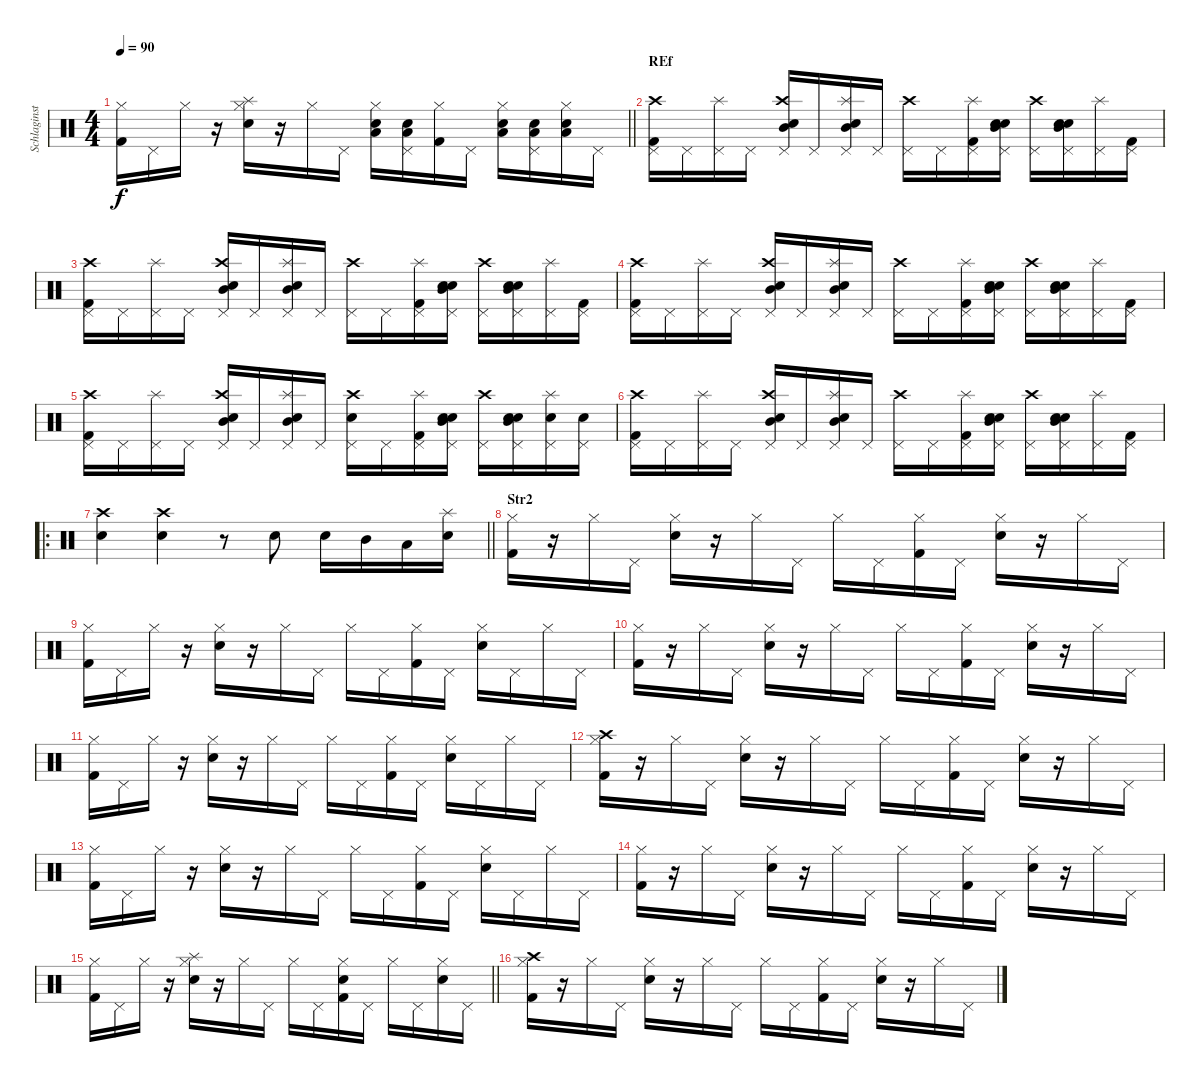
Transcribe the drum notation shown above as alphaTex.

\track ("Schlaginstrumente - Auswahl" "Schlaginst") {instrument percussion}
\staff {score}
\articulation defaults
\ts (4 4)
\tempo 90
\clef neutral
\barLineRight lightlight
\ks c
("Kick (hit) 2" "Hi-Hat (closed)").16{dy f} "Pedal Hi-Hat (hit)".16 "Hi-Hat (closed)".16 r.16 ("Snare (hit) 2" "Hi-Hat (closed)" "Splash (hit)").16 r.16 "Hi-Hat (closed)".16 "Pedal Hi-Hat (hit)".16 ("Hi-Hat (closed)" "Low Tom (hit)" "Snare (hit) 2").16 ("Pedal Hi-Hat (hit)" "Low Tom (hit)" "Snare (hit) 2").16 ("Kick (hit) 2" "Hi-Hat (closed)").16 "Pedal Hi-Hat (hit)".16 ("Snare (hit) 2" "Hi-Hat (closed)" "Low Tom (hit)").16 ("Pedal Hi-Hat (hit)" "Low Tom (hit)" "Snare (hit) 2").16 ("Hi-Hat (closed)" "Low Tom (hit)" "Snare (hit) 2").16 "Pedal Hi-Hat (hit)".16 |
\section ("" "REf")
("Crash high (hit)" "Kick (hit) 2" "Pedal Hi-Hat (hit)").16 "Pedal Hi-Hat (hit)".16 ("Splash (hit)" "Pedal Hi-Hat (hit)").16 "Pedal Hi-Hat (hit)".16 ("Mid Tom (hit)" "Snare (hit) 2" "Crash high (hit)" "Pedal Hi-Hat (hit)").16 "Pedal Hi-Hat (hit)".16 ("Snare (hit) 2" "Mid Tom (hit)" "Splash (hit)" "Pedal Hi-Hat (hit)").16 "Pedal Hi-Hat (hit)".16 ("Crash high (hit)" "Pedal Hi-Hat (hit)").16 "Pedal Hi-Hat (hit)".16 ("Splash (hit)" "Kick (hit) 2" "Pedal Hi-Hat (hit)").16 ("Mid Tom (hit)" "Snare (hit) 2" "Electric Snare (hit)" "Pedal Hi-Hat (hit)").16 ("Crash high (hit)" "Pedal Hi-Hat (hit)").16 ("Mid Tom (hit)" "Snare (hit) 2" "Electric Snare (hit)" "Pedal Hi-Hat (hit)").16 ("Splash (hit)" "Pedal Hi-Hat (hit)").16 ("Kick (hit) 2" "Pedal Hi-Hat (hit)").16 |
("Crash high (hit)" "Kick (hit) 2" "Pedal Hi-Hat (hit)").16 "Pedal Hi-Hat (hit)".16 ("Splash (hit)" "Pedal Hi-Hat (hit)").16 "Pedal Hi-Hat (hit)".16 ("Mid Tom (hit)" "Snare (hit) 2" "Crash high (hit)" "Pedal Hi-Hat (hit)").16 "Pedal Hi-Hat (hit)".16 ("Snare (hit) 2" "Mid Tom (hit)" "Splash (hit)" "Pedal Hi-Hat (hit)").16 "Pedal Hi-Hat (hit)".16 ("Crash high (hit)" "Pedal Hi-Hat (hit)").16 "Pedal Hi-Hat (hit)".16 ("Splash (hit)" "Kick (hit) 2" "Pedal Hi-Hat (hit)").16 ("Mid Tom (hit)" "Snare (hit) 2" "Electric Snare (hit)" "Pedal Hi-Hat (hit)").16 ("Crash high (hit)" "Pedal Hi-Hat (hit)").16 ("Mid Tom (hit)" "Snare (hit) 2" "Electric Snare (hit)" "Pedal Hi-Hat (hit)").16 ("Splash (hit)" "Pedal Hi-Hat (hit)").16 ("Kick (hit) 2" "Pedal Hi-Hat (hit)").16 |
("Crash high (hit)" "Kick (hit) 2" "Pedal Hi-Hat (hit)").16 "Pedal Hi-Hat (hit)".16 ("Splash (hit)" "Pedal Hi-Hat (hit)").16 "Pedal Hi-Hat (hit)".16 ("Mid Tom (hit)" "Snare (hit) 2" "Crash high (hit)" "Pedal Hi-Hat (hit)").16 "Pedal Hi-Hat (hit)".16 ("Snare (hit) 2" "Mid Tom (hit)" "Splash (hit)" "Pedal Hi-Hat (hit)").16 "Pedal Hi-Hat (hit)".16 ("Crash high (hit)" "Pedal Hi-Hat (hit)").16 "Pedal Hi-Hat (hit)".16 ("Splash (hit)" "Kick (hit) 2" "Pedal Hi-Hat (hit)").16 ("Mid Tom (hit)" "Snare (hit) 2" "Electric Snare (hit)" "Pedal Hi-Hat (hit)").16 ("Crash high (hit)" "Pedal Hi-Hat (hit)").16 ("Mid Tom (hit)" "Snare (hit) 2" "Electric Snare (hit)" "Pedal Hi-Hat (hit)").16 ("Splash (hit)" "Pedal Hi-Hat (hit)").16 ("Kick (hit) 2" "Pedal Hi-Hat (hit)").16 |
("Crash high (hit)" "Kick (hit) 2" "Pedal Hi-Hat (hit)").16 "Pedal Hi-Hat (hit)".16 ("Splash (hit)" "Pedal Hi-Hat (hit)").16 "Pedal Hi-Hat (hit)".16 ("Mid Tom (hit)" "Snare (hit) 2" "Crash high (hit)" "Pedal Hi-Hat (hit)").16 "Pedal Hi-Hat (hit)".16 ("Snare (hit) 2" "Mid Tom (hit)" "Splash (hit)" "Pedal Hi-Hat (hit)").16 "Pedal Hi-Hat (hit)".16 ("Crash high (hit)" "Snare (hit) 2" "Pedal Hi-Hat (hit)").16 "Pedal Hi-Hat (hit)".16 ("Splash (hit)" "Kick (hit) 2" "Pedal Hi-Hat (hit)").16 ("Mid Tom (hit)" "Snare (hit) 2" "Electric Snare (hit)" "Pedal Hi-Hat (hit)").16 ("Crash high (hit)" "Pedal Hi-Hat (hit)").16 ("Mid Tom (hit)" "Snare (hit) 2" "Electric Snare (hit)" "Pedal Hi-Hat (hit)").16 ("Snare (hit) 2" "Splash (hit)" "Pedal Hi-Hat (hit)").16 ("Snare (hit) 2" "Pedal Hi-Hat (hit)").16 |
("Crash high (hit)" "Kick (hit) 2" "Pedal Hi-Hat (hit)").16 "Pedal Hi-Hat (hit)".16 ("Splash (hit)" "Pedal Hi-Hat (hit)").16 "Pedal Hi-Hat (hit)".16 ("Mid Tom (hit)" "Snare (hit) 2" "Crash high (hit)" "Pedal Hi-Hat (hit)").16 "Pedal Hi-Hat (hit)".16 ("Snare (hit) 2" "Mid Tom (hit)" "Splash (hit)" "Pedal Hi-Hat (hit)").16 "Pedal Hi-Hat (hit)".16 ("Crash high (hit)" "Pedal Hi-Hat (hit)").16 "Pedal Hi-Hat (hit)".16 ("Splash (hit)" "Kick (hit) 2" "Pedal Hi-Hat (hit)").16 ("Mid Tom (hit)" "Snare (hit) 2" "Electric Snare (hit)" "Pedal Hi-Hat (hit)").16 ("Crash high (hit)" "Pedal Hi-Hat (hit)").16 ("Mid Tom (hit)" "Snare (hit) 2" "Electric Snare (hit)" "Pedal Hi-Hat (hit)").16 ("Splash (hit)" "Pedal Hi-Hat (hit)").16 ("Kick (hit) 2" "Pedal Hi-Hat (hit)").16 |
\ro
\barLineRight lightlight
("Snare (hit) 2" "Crash high (hit)").4 ("Snare (hit) 2" "Crash high (hit)").4 r.8 "Snare (hit) 2".8 "Snare (hit) 2".16 "Mid Tom (hit)".16 "Low Tom (hit)".16 ("Snare (hit) 2" "Splash (hit)").16 |
\section ("" "Str2")
("Kick (hit) 2" "Hi-Hat (closed)").16 r.16 "Hi-Hat (closed)".16 "Pedal Hi-Hat (hit)".16 ("Snare (hit) 2" "Hi-Hat (closed)").16 r.16 "Hi-Hat (closed)".16 "Pedal Hi-Hat (hit)".16 "Hi-Hat (closed)".16 "Pedal Hi-Hat (hit)".16 ("Kick (hit) 2" "Hi-Hat (closed)").16 "Pedal Hi-Hat (hit)".16 ("Snare (hit) 2" "Hi-Hat (closed)").16 r.16 "Hi-Hat (closed)".16 "Pedal Hi-Hat (hit)".16 |
("Kick (hit) 2" "Hi-Hat (closed)").16 "Pedal Hi-Hat (hit)".16 "Hi-Hat (closed)".16 r.16 ("Snare (hit) 2" "Hi-Hat (closed)").16 r.16 "Hi-Hat (closed)".16 "Pedal Hi-Hat (hit)".16 "Hi-Hat (closed)".16 "Pedal Hi-Hat (hit)".16 ("Kick (hit) 2" "Hi-Hat (closed)").16 "Pedal Hi-Hat (hit)".16 ("Snare (hit) 2" "Hi-Hat (closed)").16 "Pedal Hi-Hat (hit)".16 "Hi-Hat (closed)".16 "Pedal Hi-Hat (hit)".16 |
("Kick (hit) 2" "Hi-Hat (closed)").16 r.16 "Hi-Hat (closed)".16 "Pedal Hi-Hat (hit)".16 ("Snare (hit) 2" "Hi-Hat (closed)").16 r.16 "Hi-Hat (closed)".16 "Pedal Hi-Hat (hit)".16 "Hi-Hat (closed)".16 "Pedal Hi-Hat (hit)".16 ("Kick (hit) 2" "Hi-Hat (closed)").16 "Pedal Hi-Hat (hit)".16 ("Snare (hit) 2" "Hi-Hat (closed)").16 r.16 "Hi-Hat (closed)".16 "Pedal Hi-Hat (hit)".16 |
("Kick (hit) 2" "Hi-Hat (closed)").16 "Pedal Hi-Hat (hit)".16 "Hi-Hat (closed)".16 r.16 ("Snare (hit) 2" "Hi-Hat (closed)").16 r.16 "Hi-Hat (closed)".16 "Pedal Hi-Hat (hit)".16 "Hi-Hat (closed)".16 "Pedal Hi-Hat (hit)".16 ("Kick (hit) 2" "Hi-Hat (closed)").16 "Pedal Hi-Hat (hit)".16 ("Snare (hit) 2" "Hi-Hat (closed)").16 "Pedal Hi-Hat (hit)".16 "Hi-Hat (closed)".16 "Pedal Hi-Hat (hit)".16 |
("Kick (hit) 2" "Hi-Hat (closed)" "Crash high (hit)").16 r.16 "Hi-Hat (closed)".16 "Pedal Hi-Hat (hit)".16 ("Snare (hit) 2" "Hi-Hat (closed)").16 r.16 "Hi-Hat (closed)".16 "Pedal Hi-Hat (hit)".16 "Hi-Hat (closed)".16 "Pedal Hi-Hat (hit)".16 ("Kick (hit) 2" "Hi-Hat (closed)").16 "Pedal Hi-Hat (hit)".16 ("Snare (hit) 2" "Hi-Hat (closed)").16 r.16 "Hi-Hat (closed)".16 "Pedal Hi-Hat (hit)".16 |
("Kick (hit) 2" "Hi-Hat (closed)").16 "Pedal Hi-Hat (hit)".16 "Hi-Hat (closed)".16 r.16 ("Snare (hit) 2" "Hi-Hat (closed)").16 r.16 "Hi-Hat (closed)".16 "Pedal Hi-Hat (hit)".16 "Hi-Hat (closed)".16 "Pedal Hi-Hat (hit)".16 ("Kick (hit) 2" "Hi-Hat (closed)").16 "Pedal Hi-Hat (hit)".16 ("Snare (hit) 2" "Hi-Hat (closed)").16 "Pedal Hi-Hat (hit)".16 "Hi-Hat (closed)".16 "Pedal Hi-Hat (hit)".16 |
("Kick (hit) 2" "Hi-Hat (closed)").16 r.16 "Hi-Hat (closed)".16 "Pedal Hi-Hat (hit)".16 ("Snare (hit) 2" "Hi-Hat (closed)").16 r.16 "Hi-Hat (closed)".16 "Pedal Hi-Hat (hit)".16 "Hi-Hat (closed)".16 "Pedal Hi-Hat (hit)".16 ("Kick (hit) 2" "Hi-Hat (closed)").16 "Pedal Hi-Hat (hit)".16 ("Snare (hit) 2" "Hi-Hat (closed)").16 r.16 "Hi-Hat (closed)".16 "Pedal Hi-Hat (hit)".16 |
\barLineRight lightlight
("Kick (hit) 2" "Hi-Hat (closed)").16 "Pedal Hi-Hat (hit)".16 "Hi-Hat (closed)".16 r.16 ("Snare (hit) 2" "Hi-Hat (closed)" "Splash (hit)").16 r.16 "Hi-Hat (closed)".16 "Pedal Hi-Hat (hit)".16 "Hi-Hat (closed)".16 "Pedal Hi-Hat (hit)".16 ("Kick (hit) 2" "Hi-Hat (closed)" "Snare (hit) 2").16 "Pedal Hi-Hat (hit)".16 "Hi-Hat (closed)".16 "Pedal Hi-Hat (hit)".16 ("Hi-Hat (closed)" "Snare (hit) 2").16 "Pedal Hi-Hat (hit)".16 |
("Kick (hit) 2" "Hi-Hat (closed)" "Crash high (hit)").16 r.16 "Hi-Hat (closed)".16 "Pedal Hi-Hat (hit)".16 ("Snare (hit) 2" "Hi-Hat (closed)").16 r.16 "Hi-Hat (closed)".16 "Pedal Hi-Hat (hit)".16 "Hi-Hat (closed)".16 "Pedal Hi-Hat (hit)".16 ("Kick (hit) 2" "Hi-Hat (closed)").16 "Pedal Hi-Hat (hit)".16 ("Snare (hit) 2" "Hi-Hat (closed)").16 r.16 "Hi-Hat (closed)".16 "Pedal Hi-Hat (hit)".16
